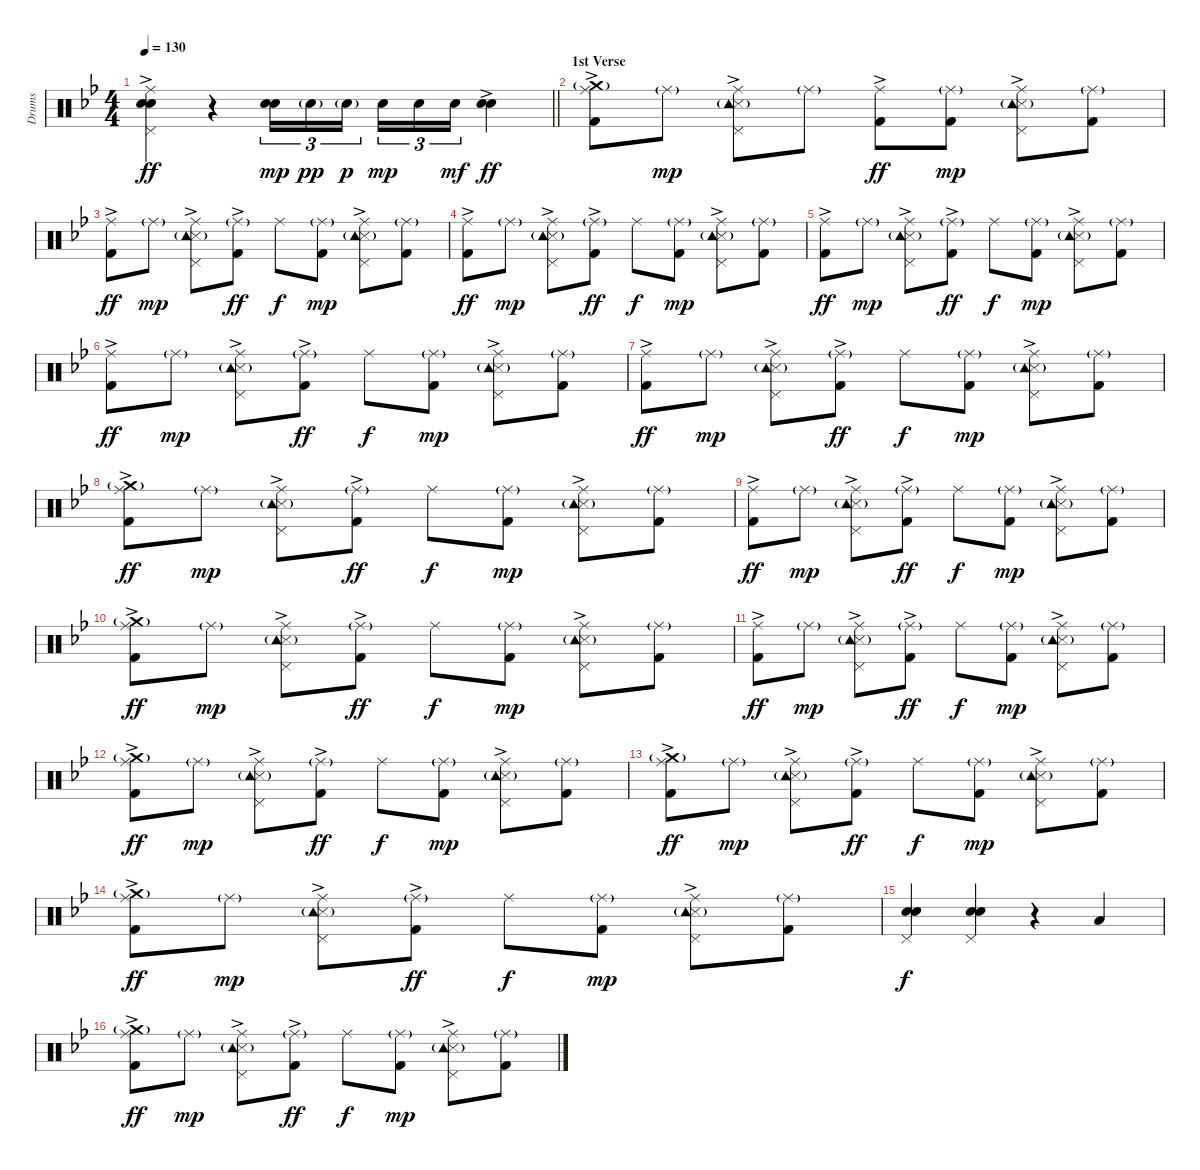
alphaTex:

\track ("Drums" "Drums") {instrument percussion}
\staff {score}
\articulation defaults
\ts (4 4)
\tempo 130
\clef neutral
\barLineRight lightlight
\ks bb
("Ride (middle)" "Pedal Hi-Hat (hit)" "Electric Snare (hit)"{ac} "Snare (hit) 2").4{dy ff} r.4 ("Electric Snare (hit)" "Snare (hit) 2").16{tu (3 2) dy mp} "Electric Snare (hit)"{g}.16{tu (3 2) dy pp} "Electric Snare (hit)"{g}.16{tu (3 2) dy p beam splitsecondary} "Electric Snare (hit)".16{tu (3 2) dy mp} "Electric Snare (hit)".16{tu (3 2)} "Electric Snare (hit)".16{tu (3 2) dy mf} ("Electric Snare (hit)" "Snare (hit) 2"{ac}).4{dy ff} |
\section ("" "1st Verse")
("Ride (middle)" "Crash medium (hit)"{g} "Kick (hit) 2"{ac}).8 "Ride (middle)"{g}.8{dy mp} ("Ride (middle)" "Pedal Hi-Hat (hit)" "Snare (side stick) 3"{ac} "Tambourine (hit)"{g}).8 "Ride (middle)"{g}.8 ("Ride (middle)" "Kick (hit) 2"{ac}).8{dy ff} ("Ride (middle)"{g} "Kick (hit) 2").8{dy mp} ("Ride (middle)" "Pedal Hi-Hat (hit)" "Snare (side stick) 3"{ac} "Tambourine (hit)"{g}).8 ("Ride (middle)"{g} "Kick (hit) 2").8 |
("Ride (middle)" "Kick (hit) 2"{ac}).8{dy ff} "Ride (middle)"{g}.8{dy mp} ("Ride (middle)" "Pedal Hi-Hat (hit)" "Snare (side stick) 3"{ac} "Tambourine (hit)"{g}).8 ("Ride (middle)"{g} "Kick (hit) 2"{ac}).8{dy ff} "Ride (middle)".8{dy f} ("Ride (middle)"{g} "Kick (hit) 2").8{dy mp} ("Ride (middle)" "Pedal Hi-Hat (hit)" "Snare (side stick) 3"{ac} "Tambourine (hit)"{g}).8 ("Ride (middle)"{g} "Kick (hit) 2").8 |
("Ride (middle)" "Kick (hit) 2"{ac}).8{dy ff} "Ride (middle)"{g}.8{dy mp} ("Ride (middle)" "Pedal Hi-Hat (hit)" "Snare (side stick) 3"{ac} "Tambourine (hit)"{g}).8 ("Ride (middle)"{g} "Kick (hit) 2"{ac}).8{dy ff} "Ride (middle)".8{dy f} ("Ride (middle)"{g} "Kick (hit) 2").8{dy mp} ("Ride (middle)" "Pedal Hi-Hat (hit)" "Snare (side stick) 3"{ac} "Tambourine (hit)"{g}).8 ("Ride (middle)"{g} "Kick (hit) 2").8 |
("Ride (middle)" "Kick (hit) 2"{ac}).8{dy ff} "Ride (middle)"{g}.8{dy mp} ("Ride (middle)" "Pedal Hi-Hat (hit)" "Snare (side stick) 3"{ac} "Tambourine (hit)"{g}).8 ("Ride (middle)"{g} "Kick (hit) 2"{ac}).8{dy ff} "Ride (middle)".8{dy f} ("Ride (middle)"{g} "Kick (hit) 2").8{dy mp} ("Ride (middle)" "Pedal Hi-Hat (hit)" "Snare (side stick) 3"{ac} "Tambourine (hit)"{g}).8 ("Ride (middle)"{g} "Kick (hit) 2").8 |
("Ride (middle)" "Kick (hit) 2"{ac}).8{dy ff} "Ride (middle)"{g}.8{dy mp} ("Ride (middle)" "Pedal Hi-Hat (hit)" "Snare (side stick) 3"{ac} "Tambourine (hit)"{g}).8 ("Ride (middle)"{g} "Kick (hit) 2"{ac}).8{dy ff} "Ride (middle)".8{dy f} ("Ride (middle)"{g} "Kick (hit) 2").8{dy mp} ("Ride (middle)" "Pedal Hi-Hat (hit)" "Snare (side stick) 3"{ac} "Tambourine (hit)"{g}).8 ("Ride (middle)"{g} "Kick (hit) 2").8 |
("Ride (middle)" "Kick (hit) 2"{ac}).8{dy ff} "Ride (middle)"{g}.8{dy mp} ("Ride (middle)" "Pedal Hi-Hat (hit)" "Snare (side stick) 3"{ac} "Tambourine (hit)"{g}).8 ("Ride (middle)"{g} "Kick (hit) 2"{ac}).8{dy ff} "Ride (middle)".8{dy f} ("Ride (middle)"{g} "Kick (hit) 2").8{dy mp} ("Ride (middle)" "Pedal Hi-Hat (hit)" "Snare (side stick) 3"{ac} "Tambourine (hit)"{g}).8 ("Ride (middle)"{g} "Kick (hit) 2").8 |
("Ride (middle)" "Crash medium (hit)"{g} "Kick (hit) 2"{ac}).8{dy ff} "Ride (middle)"{g}.8{dy mp} ("Ride (middle)" "Pedal Hi-Hat (hit)" "Snare (side stick) 3"{ac} "Tambourine (hit)"{g}).8 ("Ride (middle)"{g} "Kick (hit) 2"{ac}).8{dy ff} "Ride (middle)".8{dy f} ("Ride (middle)"{g} "Kick (hit) 2").8{dy mp} ("Ride (middle)" "Pedal Hi-Hat (hit)" "Snare (side stick) 3"{ac} "Tambourine (hit)"{g}).8 ("Ride (middle)"{g} "Kick (hit) 2").8 |
("Ride (middle)" "Kick (hit) 2"{ac}).8{dy ff} "Ride (middle)"{g}.8{dy mp} ("Ride (middle)" "Pedal Hi-Hat (hit)" "Snare (side stick) 3"{ac} "Tambourine (hit)"{g}).8 ("Ride (middle)"{g} "Kick (hit) 2"{ac}).8{dy ff} "Ride (middle)".8{dy f} ("Ride (middle)"{g} "Kick (hit) 2").8{dy mp} ("Ride (middle)" "Pedal Hi-Hat (hit)" "Snare (side stick) 3"{ac} "Tambourine (hit)"{g}).8 ("Ride (middle)"{g} "Kick (hit) 2").8 |
("Ride (middle)" "Crash medium (hit)"{g} "Kick (hit) 2"{ac}).8{dy ff} "Ride (middle)"{g}.8{dy mp} ("Ride (middle)" "Pedal Hi-Hat (hit)" "Snare (side stick) 3"{ac} "Tambourine (hit)"{g}).8 ("Ride (middle)"{g} "Kick (hit) 2"{ac}).8{dy ff} "Ride (middle)".8{dy f} ("Ride (middle)"{g} "Kick (hit) 2").8{dy mp} ("Ride (middle)" "Pedal Hi-Hat (hit)" "Snare (side stick) 3"{ac} "Tambourine (hit)"{g}).8 ("Ride (middle)"{g} "Kick (hit) 2").8 |
("Ride (middle)" "Kick (hit) 2"{ac}).8{dy ff} "Ride (middle)"{g}.8{dy mp} ("Ride (middle)" "Pedal Hi-Hat (hit)" "Snare (side stick) 3"{ac} "Tambourine (hit)"{g}).8 ("Ride (middle)"{g} "Kick (hit) 2"{ac}).8{dy ff} "Ride (middle)".8{dy f} ("Ride (middle)"{g} "Kick (hit) 2").8{dy mp} ("Ride (middle)" "Pedal Hi-Hat (hit)" "Snare (side stick) 3"{ac} "Tambourine (hit)"{g}).8 ("Ride (middle)"{g} "Kick (hit) 2").8 |
("Ride (middle)" "Crash medium (hit)"{g} "Kick (hit) 2"{ac}).8{dy ff} "Ride (middle)"{g}.8{dy mp} ("Ride (middle)" "Pedal Hi-Hat (hit)" "Snare (side stick) 3"{ac} "Tambourine (hit)"{g}).8 ("Ride (middle)"{g} "Kick (hit) 2"{ac}).8{dy ff} "Ride (middle)".8{dy f} ("Ride (middle)"{g} "Kick (hit) 2").8{dy mp} ("Ride (middle)" "Pedal Hi-Hat (hit)" "Snare (side stick) 3"{ac} "Tambourine (hit)"{g}).8 ("Ride (middle)"{g} "Kick (hit) 2").8 |
("Ride (middle)" "Crash medium (hit)"{g} "Kick (hit) 2"{ac}).8{dy ff} "Ride (middle)"{g}.8{dy mp} ("Ride (middle)" "Pedal Hi-Hat (hit)" "Snare (side stick) 3"{ac} "Tambourine (hit)"{g}).8 ("Ride (middle)"{g} "Kick (hit) 2"{ac}).8{dy ff} "Ride (middle)".8{dy f} ("Ride (middle)"{g} "Kick (hit) 2").8{dy mp} ("Ride (middle)" "Pedal Hi-Hat (hit)" "Snare (side stick) 3"{ac} "Tambourine (hit)"{g}).8 ("Ride (middle)"{g} "Kick (hit) 2").8 |
("Ride (middle)" "Crash medium (hit)"{g} "Kick (hit) 2"{ac}).8{dy ff} "Ride (middle)"{g}.8{dy mp} ("Ride (middle)" "Pedal Hi-Hat (hit)" "Snare (side stick) 3"{ac} "Tambourine (hit)"{g}).8 ("Ride (middle)"{g} "Kick (hit) 2"{ac}).8{dy ff} "Ride (middle)".8{dy f} ("Ride (middle)"{g} "Kick (hit) 2").8{dy mp} ("Ride (middle)" "Pedal Hi-Hat (hit)" "Snare (side stick) 3"{ac} "Tambourine (hit)"{g}).8 ("Ride (middle)"{g} "Kick (hit) 2").8 |
("Pedal Hi-Hat (hit)" "Electric Snare (hit)" "Snare (hit) 2").4{dy f} ("Pedal Hi-Hat (hit)" "Electric Snare (hit)" "Snare (hit) 2").4 r.4 "Low Tom (hit)".4 |
("Ride (middle)" "Crash medium (hit)"{g} "Kick (hit) 2"{ac}).8{dy ff} "Ride (middle)"{g}.8{dy mp} ("Ride (middle)" "Pedal Hi-Hat (hit)" "Snare (side stick) 3"{ac} "Tambourine (hit)"{g}).8 ("Ride (middle)"{g} "Kick (hit) 2"{ac}).8{dy ff} "Ride (middle)".8{dy f} ("Ride (middle)"{g} "Kick (hit) 2").8{dy mp} ("Ride (middle)" "Pedal Hi-Hat (hit)" "Snare (side stick) 3"{ac} "Tambourine (hit)"{g}).8 ("Ride (middle)"{g} "Kick (hit) 2").8
